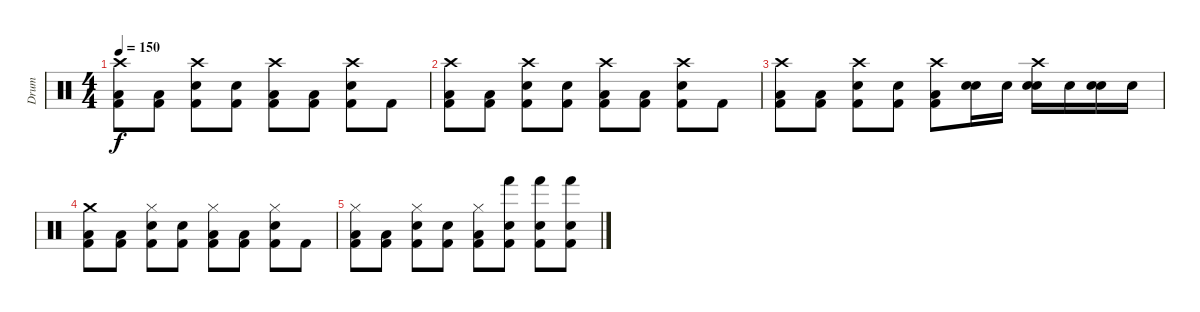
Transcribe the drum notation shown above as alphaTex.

\track ("Drum" "Drum") {instrument percussion}
\staff {score}
\articulation defaults
\ts (4 4)
\tempo 150
\clef neutral
\ks c
("Crash high (hit)" "Low Floor Tom (hit)" "Kick (hit) 2").8{dy f} ("Low Floor Tom (hit)" "Kick (hit) 2").8 ("Crash high (hit)" "Snare (hit) 2" "Kick (hit) 2").8 ("Snare (hit) 2" "Kick (hit) 2").8 ("Crash high (hit)" "Low Floor Tom (hit)" "Kick (hit) 2").8 ("Low Floor Tom (hit)" "Kick (hit) 2").8 ("Crash high (hit)" "Snare (hit) 2" "Kick (hit) 2").8 "Kick (hit) 2".8 |
("Crash high (hit)" "Low Floor Tom (hit)" "Kick (hit) 2").8 ("Low Floor Tom (hit)" "Kick (hit) 2").8 ("Crash high (hit)" "Snare (hit) 2" "Kick (hit) 2").8 ("Snare (hit) 2" "Kick (hit) 2").8 ("Crash high (hit)" "Low Floor Tom (hit)" "Kick (hit) 2").8 ("Low Floor Tom (hit)" "Kick (hit) 2").8 ("Crash high (hit)" "Snare (hit) 2" "Kick (hit) 2").8 "Kick (hit) 2".8 |
("Crash high (hit)" "Low Floor Tom (hit)" "Kick (hit) 2").8 ("Low Floor Tom (hit)" "Kick (hit) 2").8 ("Crash high (hit)" "Snare (hit) 2" "Kick (hit) 2").8 ("Snare (hit) 2" "Kick (hit) 2").8 ("Crash high (hit)" "Low Floor Tom (hit)" "Kick (hit) 2").8 ("Electric Snare (hit)" "Snare (hit) 2").16 "Electric Snare (hit)".16 ("Crash high (hit)" "Electric Snare (hit)" "Snare (hit) 2").16 "Electric Snare (hit)".16 ("Electric Snare (hit)" "Snare (hit) 2").16 "Electric Snare (hit)".16 |
("Crash medium (hit)" "Low Floor Tom (hit)" "Kick (hit) 2").8 ("Low Floor Tom (hit)" "Kick (hit) 2").8 ("Hi-Hat (closed)" "Snare (hit) 2" "Kick (hit) 2").8 ("Snare (hit) 2" "Kick (hit) 2").8 ("Hi-Hat (closed)" "Low Floor Tom (hit)" "Kick (hit) 2").8 ("Low Floor Tom (hit)" "Kick (hit) 2").8 ("Hi-Hat (closed)" "Snare (hit) 2" "Kick (hit) 2").8 "Kick (hit) 2".8 |
("Hi-Hat (closed)" "Low Floor Tom (hit)" "Kick (hit) 2").8 ("Low Floor Tom (hit)" "Kick (hit) 2").8 ("Hi-Hat (closed)" "Snare (hit) 2" "Kick (hit) 2").8 ("Snare (hit) 2" "Kick (hit) 2").8 ("Hi-Hat (closed)" "Low Floor Tom (hit)" "Kick (hit) 2").8 ("Hand (hit)" "Electric Snare (hit)" "Kick (hit) 2").8 ("Hand (hit)" "Electric Snare (hit)" "Kick (hit) 2").8 ("Hand (hit)" "Electric Snare (hit)" "Kick (hit) 2").8
